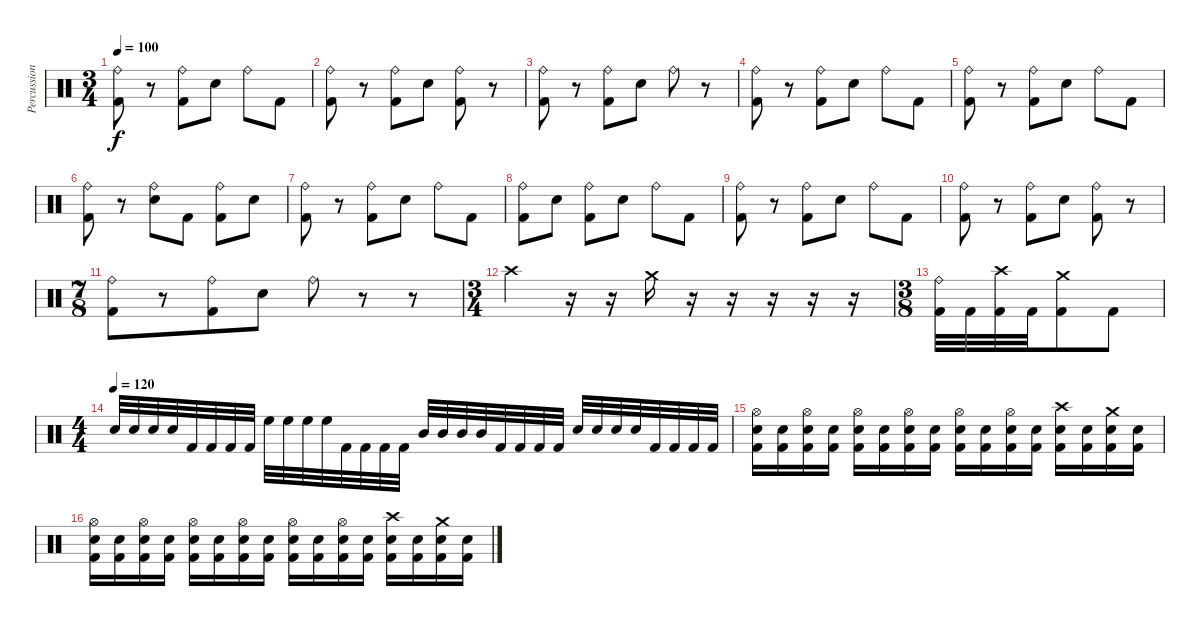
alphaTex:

\track ("Percussion" "Percussion") {instrument percussion}
\staff {score}
\articulation defaults
\ts (3 4)
\tempo 100
\clef neutral
\ks c
("Kick (hit) 2" "Ride (bell)").8{dy f} r.8 ("Kick (hit) 2" "Ride (bell)").8 "Electric Snare (hit)".8 "Ride (bell)".8 "Kick (hit) 2".8 |
("Kick (hit) 2" "Ride (bell)").8 r.8 ("Kick (hit) 2" "Ride (bell)").8 "Electric Snare (hit)".8 ("Kick (hit) 2" "Ride (bell)").8 r.8 |
("Kick (hit) 2" "Ride (bell)").8 r.8 ("Kick (hit) 2" "Ride (bell)").8 "Electric Snare (hit)".8 "Ride (bell)".8 r.8 |
("Kick (hit) 2" "Ride (bell)").8 r.8 ("Kick (hit) 2" "Ride (bell)").8 "Electric Snare (hit)".8 "Ride (bell)".8 "Kick (hit) 2".8 |
("Kick (hit) 2" "Ride (bell)").8 r.8 ("Kick (hit) 2" "Ride (bell)").8 "Electric Snare (hit)".8 "Ride (bell)".8 "Kick (hit) 2".8 |
("Kick (hit) 2" "Ride (bell)").8 r.8 ("Electric Snare (hit)" "Ride (bell)").8 "Kick (hit) 2".8 ("Kick (hit) 2" "Ride (bell)").8 "Electric Snare (hit)".8 |
("Kick (hit) 2" "Ride (bell)").8 r.8 ("Kick (hit) 2" "Ride (bell)").8 "Electric Snare (hit)".8 "Ride (bell)".8 "Kick (hit) 2".8 |
("Kick (hit) 2" "Ride (bell)").8 "Electric Snare (hit)".8 ("Kick (hit) 2" "Ride (bell)").8 "Electric Snare (hit)".8 "Ride (bell)".8 "Kick (hit) 2".8 |
("Kick (hit) 2" "Ride (bell)").8 r.8 ("Kick (hit) 2" "Ride (bell)").8 "Electric Snare (hit)".8 "Ride (bell)".8 "Kick (hit) 2".8 |
("Kick (hit) 2" "Ride (bell)").8 r.8 ("Kick (hit) 2" "Ride (bell)").8 "Electric Snare (hit)".8 ("Kick (hit) 2" "Ride (bell)").8 r.8 |
\ts (7 8)
("Kick (hit) 2" "Ride (bell)").8 r.8 ("Kick (hit) 2" "Ride (bell)").8 "Electric Snare (hit)".8 "Ride (bell)".8 r.8 r.8 |
\ts (3 4)
"Crash high (hit)".4 r.16 r.16 "Crash medium (hit)".16 r.16 r.16 r.16 r.16 r.16 |
\ts (3 8)
("Ride (bell)" "Kick (hit) 2").32 "Kick (hit) 2".32 ("Crash high (hit)" "Kick (hit) 2").32 "Kick (hit) 2".32 ("Crash medium (hit)" "Kick (hit) 2").8 "Kick (hit) 2".8 |
\ts (4 4)
\tempo (120)
"Electric Snare (hit)".32 "Electric Snare (hit)".32 "Electric Snare (hit)".32 "Electric Snare (hit)".32 "Kick (hit) 2".32 "Kick (hit) 2".32 "Kick (hit) 2".32 "Kick (hit) 2".32 "High Floor Tom (hit)".32 "High Floor Tom (hit)".32 "High Floor Tom (hit)".32 "High Floor Tom (hit)".32 "Kick (hit) 2".32 "Kick (hit) 2".32 "Kick (hit) 2".32 "Kick (hit) 2".32 "Mid Tom (hit)".32 "Mid Tom (hit)".32 "Mid Tom (hit)".32 "Mid Tom (hit)".32 "Kick (hit) 2".32 "Kick (hit) 2".32 "Kick (hit) 2".32 "Kick (hit) 2".32 "Electric Snare (hit)".32 "Electric Snare (hit)".32 "Electric Snare (hit)".32 "Electric Snare (hit)".32 "Kick (hit) 2".32 "Kick (hit) 2".32 "Kick (hit) 2".32 "Kick (hit) 2".32 |
("Hi-Hat (open)" "Electric Snare (hit)" "Kick (hit) 2").16 ("Electric Snare (hit)" "Kick (hit) 2").16 ("Hi-Hat (open)" "Electric Snare (hit)" "Kick (hit) 2").16 ("Electric Snare (hit)" "Kick (hit) 2").16 ("Hi-Hat (open)" "Electric Snare (hit)" "Kick (hit) 2").16 ("Electric Snare (hit)" "Kick (hit) 2").16 ("Hi-Hat (open)" "Electric Snare (hit)" "Kick (hit) 2").16 ("Electric Snare (hit)" "Kick (hit) 2").16 ("Hi-Hat (open)" "Electric Snare (hit)" "Kick (hit) 2").16 ("Electric Snare (hit)" "Kick (hit) 2").16 ("Hi-Hat (open)" "Electric Snare (hit)" "Kick (hit) 2").16 ("Electric Snare (hit)" "Kick (hit) 2").16 ("Crash high (hit)" "Electric Snare (hit)" "Kick (hit) 2").16 ("Electric Snare (hit)" "Kick (hit) 2").16 ("Crash medium (hit)" "Electric Snare (hit)" "Kick (hit) 2").16 ("Electric Snare (hit)" "Kick (hit) 2").16 |
("Hi-Hat (open)" "Electric Snare (hit)" "Kick (hit) 2").16 ("Electric Snare (hit)" "Kick (hit) 2").16 ("Hi-Hat (open)" "Electric Snare (hit)" "Kick (hit) 2").16 ("Electric Snare (hit)" "Kick (hit) 2").16 ("Hi-Hat (open)" "Electric Snare (hit)" "Kick (hit) 2").16 ("Electric Snare (hit)" "Kick (hit) 2").16 ("Hi-Hat (open)" "Electric Snare (hit)" "Kick (hit) 2").16 ("Electric Snare (hit)" "Kick (hit) 2").16 ("Hi-Hat (open)" "Electric Snare (hit)" "Kick (hit) 2").16 ("Electric Snare (hit)" "Kick (hit) 2").16 ("Hi-Hat (open)" "Electric Snare (hit)" "Kick (hit) 2").16 ("Electric Snare (hit)" "Kick (hit) 2").16 ("Crash high (hit)" "Electric Snare (hit)" "Kick (hit) 2").16 ("Electric Snare (hit)" "Kick (hit) 2").16 ("Crash medium (hit)" "Electric Snare (hit)" "Kick (hit) 2").16 ("Electric Snare (hit)" "Kick (hit) 2").16
